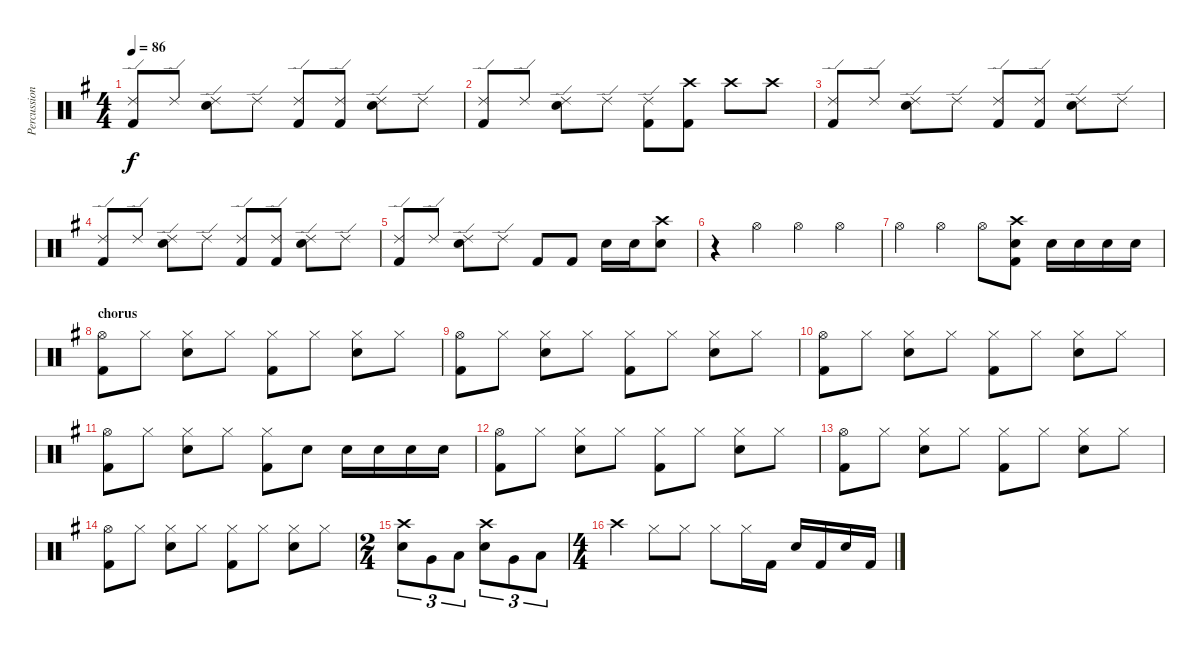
\track ("Percussion" "Percussion") {instrument percussion}
\staff {score}
\articulation defaults
\ts (4 4)
\tempo 86
\clef neutral
\ks eminor
("Ride (edge) 2" "Kick (hit) 2").8{dy f} "Ride (edge) 2".8 ("Ride (edge) 2" "Snare (hit) 2").8 "Ride (edge) 2".8 ("Ride (edge) 2" "Kick (hit) 2").8 ("Ride (edge) 2" "Kick (hit) 2").8 ("Ride (edge) 2" "Snare (hit) 2").8 "Ride (edge) 2".8 |
("Ride (edge) 2" "Kick (hit) 2").8 "Ride (edge) 2".8 ("Ride (edge) 2" "Snare (hit) 2").8 "Ride (edge) 2".8 ("Ride (edge) 2" "Kick (hit) 2").8 ("Crash high (hit)" "Kick (hit) 2").8 "Crash high (hit)".8 "Crash high (hit)".8 |
("Ride (edge) 2" "Kick (hit) 2").8 "Ride (edge) 2".8 ("Ride (edge) 2" "Snare (hit) 2").8 "Ride (edge) 2".8 ("Ride (edge) 2" "Kick (hit) 2").8 ("Ride (edge) 2" "Kick (hit) 2").8 ("Ride (edge) 2" "Snare (hit) 2").8 "Ride (edge) 2".8 |
("Ride (edge) 2" "Kick (hit) 2").8 "Ride (edge) 2".8 ("Ride (edge) 2" "Snare (hit) 2").8 "Ride (edge) 2".8 ("Ride (edge) 2" "Kick (hit) 2").8 ("Ride (edge) 2" "Kick (hit) 2").8 ("Ride (edge) 2" "Snare (hit) 2").8 "Ride (edge) 2".8 |
("Ride (edge) 2" "Kick (hit) 2").8 "Ride (edge) 2".8 ("Ride (edge) 2" "Snare (hit) 2").8 "Ride (edge) 2".8 "Kick (hit) 2".8 "Kick (hit) 2".8 "Snare (hit) 2".16 "Snare (hit) 2".16 ("Crash high (hit)" "Electric Snare (hit)").8 |
r.4 "Hi-Hat (open)".4 "Hi-Hat (open)".4 "Hi-Hat (open)".4 |
"Hi-Hat (open)".4 "Hi-Hat (open)".4 "Hi-Hat (open)".8 ("Crash high (hit)" "Kick (hit) 2" "Snare (hit) 2").8 "Snare (hit) 2".16 "Snare (hit) 2".16 "Snare (hit) 2".16 "Snare (hit) 2".16 |
\section ("" "chorus")
("Hi-Hat (open)" "Kick (hit) 2").8 "Hi-Hat (closed)".8 ("Hi-Hat (closed)" "Snare (hit) 2").8 "Hi-Hat (closed)".8 ("Hi-Hat (closed)" "Kick (hit) 2").8 "Hi-Hat (closed)".8 ("Hi-Hat (closed)" "Snare (hit) 2").8 "Hi-Hat (closed)".8 |
("Hi-Hat (open)" "Kick (hit) 2").8 "Hi-Hat (closed)".8 ("Hi-Hat (closed)" "Snare (hit) 2").8 "Hi-Hat (closed)".8 ("Hi-Hat (closed)" "Kick (hit) 2").8 "Hi-Hat (closed)".8 ("Hi-Hat (closed)" "Snare (hit) 2").8 "Hi-Hat (closed)".8 |
("Hi-Hat (open)" "Kick (hit) 2").8 "Hi-Hat (closed)".8 ("Hi-Hat (closed)" "Snare (hit) 2").8 "Hi-Hat (closed)".8 ("Hi-Hat (closed)" "Kick (hit) 2").8 "Hi-Hat (closed)".8 ("Hi-Hat (closed)" "Snare (hit) 2").8 "Hi-Hat (closed)".8 |
("Hi-Hat (open)" "Kick (hit) 2").8 "Hi-Hat (closed)".8 ("Hi-Hat (closed)" "Snare (hit) 2").8 "Hi-Hat (closed)".8 ("Hi-Hat (closed)" "Kick (hit) 2").8 "Snare (hit) 2".8 "Snare (hit) 2".16 "Snare (hit) 2".16 "Snare (hit) 2".16 "Snare (hit) 2".16 |
("Hi-Hat (open)" "Kick (hit) 2").8 "Hi-Hat (closed)".8 ("Hi-Hat (closed)" "Snare (hit) 2").8 "Hi-Hat (closed)".8 ("Hi-Hat (closed)" "Kick (hit) 2").8 "Hi-Hat (closed)".8 ("Hi-Hat (closed)" "Snare (hit) 2").8 "Hi-Hat (closed)".8 |
("Hi-Hat (open)" "Kick (hit) 2").8 "Hi-Hat (closed)".8 ("Hi-Hat (closed)" "Snare (hit) 2").8 "Hi-Hat (closed)".8 ("Hi-Hat (closed)" "Kick (hit) 2").8 "Hi-Hat (closed)".8 ("Hi-Hat (closed)" "Snare (hit) 2").8 "Hi-Hat (closed)".8 |
("Hi-Hat (open)" "Kick (hit) 2").8 "Hi-Hat (closed)".8 ("Hi-Hat (closed)" "Snare (hit) 2").8 "Hi-Hat (closed)".8 ("Hi-Hat (closed)" "Kick (hit) 2").8 "Hi-Hat (closed)".8 ("Hi-Hat (closed)" "Snare (hit) 2").8 "Hi-Hat (closed)".8 |
\ts (2 4)
("Snare (hit) 2" "Crash high (hit)").8{tu (3 2)} "Very Low Tom (hit)".8{tu (3 2)} "Low Floor Tom (hit)".8{tu (3 2)} ("Snare (hit) 2" "Crash high (hit)").8{tu (3 2)} "Very Low Tom (hit)".8{tu (3 2)} "Low Floor Tom (hit)".8{tu (3 2)} |
\ts (4 4)
"Crash high (hit)".4 "Hi-Hat (closed)".8 "Hi-Hat (closed)".8 "Hi-Hat (closed)".8 "Hi-Hat (closed)".16 "Kick (hit) 2".16 "Snare (hit) 2".16 "Kick (hit) 2".16 "Snare (hit) 2".16 "Kick (hit) 2".16
